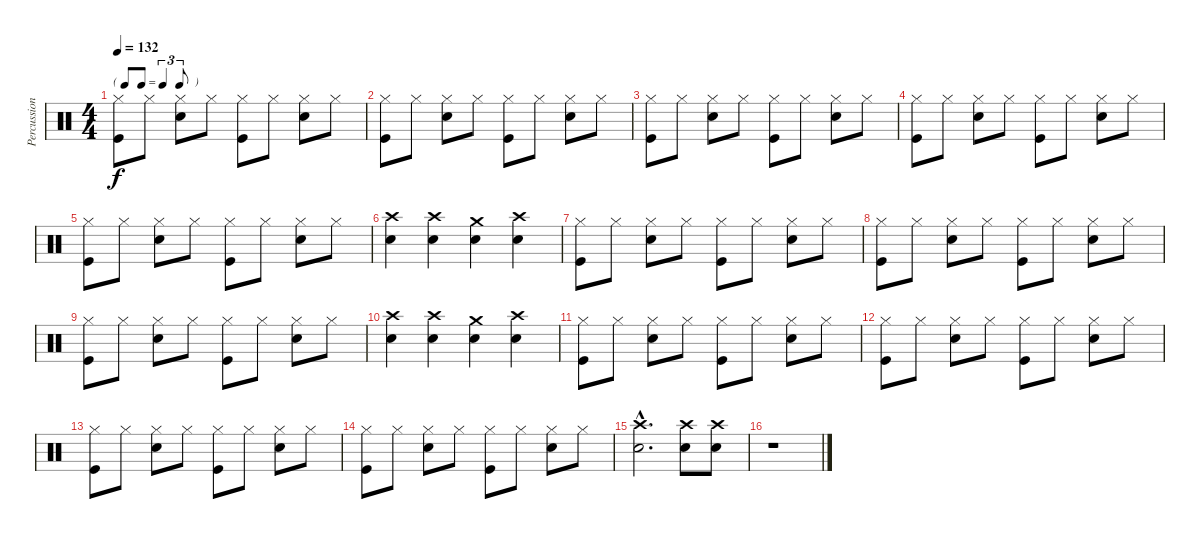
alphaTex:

\track ("Percussion" "Percussion") {instrument percussion}
\staff {score}
\articulation defaults
\ts (4 4)
\tf triplet8th
\tempo 132
\clef neutral
\ks c
("Hi-Hat (closed)" "Kick (hit)").8{dy f} "Hi-Hat (closed)".8 ("Hi-Hat (closed)" "Snare (hit) 2").8 "Hi-Hat (closed)".8 ("Hi-Hat (closed)" "Kick (hit)").8 "Hi-Hat (closed)".8 ("Hi-Hat (closed)" "Snare (hit) 2").8 "Hi-Hat (closed)".8 |
("Hi-Hat (closed)" "Kick (hit)").8 "Hi-Hat (closed)".8 ("Hi-Hat (closed)" "Snare (hit) 2").8 "Hi-Hat (closed)".8 ("Hi-Hat (closed)" "Kick (hit)").8 "Hi-Hat (closed)".8 ("Hi-Hat (closed)" "Snare (hit) 2").8 "Hi-Hat (closed)".8 |
("Hi-Hat (closed)" "Kick (hit)").8 "Hi-Hat (closed)".8 ("Hi-Hat (closed)" "Snare (hit) 2").8 "Hi-Hat (closed)".8 ("Hi-Hat (closed)" "Kick (hit)").8 "Hi-Hat (closed)".8 ("Hi-Hat (closed)" "Snare (hit) 2").8 "Hi-Hat (closed)".8 |
("Hi-Hat (closed)" "Kick (hit)").8 "Hi-Hat (closed)".8 ("Hi-Hat (closed)" "Snare (hit) 2").8 "Hi-Hat (closed)".8 ("Hi-Hat (closed)" "Kick (hit)").8 "Hi-Hat (closed)".8 ("Hi-Hat (closed)" "Snare (hit) 2").8 "Hi-Hat (closed)".8 |
("Hi-Hat (closed)" "Kick (hit)").8 "Hi-Hat (closed)".8 ("Hi-Hat (closed)" "Snare (hit) 2").8 "Hi-Hat (closed)".8 ("Hi-Hat (closed)" "Kick (hit)").8 "Hi-Hat (closed)".8 ("Hi-Hat (closed)" "Snare (hit) 2").8 "Hi-Hat (closed)".8 |
("Crash high (hit)" "Snare (hit) 2").4 ("Crash high (hit)" "Snare (hit) 2").4 ("Crash medium (hit)" "Snare (hit) 2").4 ("Crash high (hit)" "Snare (hit) 2").4 |
("Hi-Hat (closed)" "Kick (hit)").8 "Hi-Hat (closed)".8 ("Hi-Hat (closed)" "Snare (hit) 2").8 "Hi-Hat (closed)".8 ("Hi-Hat (closed)" "Kick (hit)").8 "Hi-Hat (closed)".8 ("Hi-Hat (closed)" "Snare (hit) 2").8 "Hi-Hat (closed)".8 |
("Hi-Hat (closed)" "Kick (hit)").8 "Hi-Hat (closed)".8 ("Hi-Hat (closed)" "Snare (hit) 2").8 "Hi-Hat (closed)".8 ("Hi-Hat (closed)" "Kick (hit)").8 "Hi-Hat (closed)".8 ("Hi-Hat (closed)" "Snare (hit) 2").8 "Hi-Hat (closed)".8 |
("Hi-Hat (closed)" "Kick (hit)").8 "Hi-Hat (closed)".8 ("Hi-Hat (closed)" "Snare (hit) 2").8 "Hi-Hat (closed)".8 ("Hi-Hat (closed)" "Kick (hit)").8 "Hi-Hat (closed)".8 ("Hi-Hat (closed)" "Snare (hit) 2").8 "Hi-Hat (closed)".8 |
("Crash high (hit)" "Snare (hit) 2").4 ("Crash high (hit)" "Snare (hit) 2").4 ("Crash medium (hit)" "Snare (hit) 2").4 ("Crash high (hit)" "Snare (hit) 2").4 |
("Hi-Hat (closed)" "Kick (hit)").8 "Hi-Hat (closed)".8 ("Hi-Hat (closed)" "Snare (hit) 2").8 "Hi-Hat (closed)".8 ("Hi-Hat (closed)" "Kick (hit)").8 "Hi-Hat (closed)".8 ("Hi-Hat (closed)" "Snare (hit) 2").8 "Hi-Hat (closed)".8 |
("Hi-Hat (closed)" "Kick (hit)").8 "Hi-Hat (closed)".8 ("Hi-Hat (closed)" "Snare (hit) 2").8 "Hi-Hat (closed)".8 ("Hi-Hat (closed)" "Kick (hit)").8 "Hi-Hat (closed)".8 ("Hi-Hat (closed)" "Snare (hit) 2").8 "Hi-Hat (closed)".8 |
("Hi-Hat (closed)" "Kick (hit)").8 "Hi-Hat (closed)".8 ("Hi-Hat (closed)" "Snare (hit) 2").8 "Hi-Hat (closed)".8 ("Hi-Hat (closed)" "Kick (hit)").8 "Hi-Hat (closed)".8 ("Hi-Hat (closed)" "Snare (hit) 2").8 "Hi-Hat (closed)".8 |
("Hi-Hat (closed)" "Kick (hit)").8 "Hi-Hat (closed)".8 ("Hi-Hat (closed)" "Snare (hit) 2").8 "Hi-Hat (closed)".8 ("Hi-Hat (closed)" "Kick (hit)").8 "Hi-Hat (closed)".8 ("Hi-Hat (closed)" "Snare (hit) 2").8 "Hi-Hat (closed)".8 |
("Crash high (hit)"{hac} "Snare (hit) 2"{hac}).2{d} ("Crash high (hit)" "Snare (hit) 2").8 ("Crash high (hit)" "Snare (hit) 2").8 |
r.1
